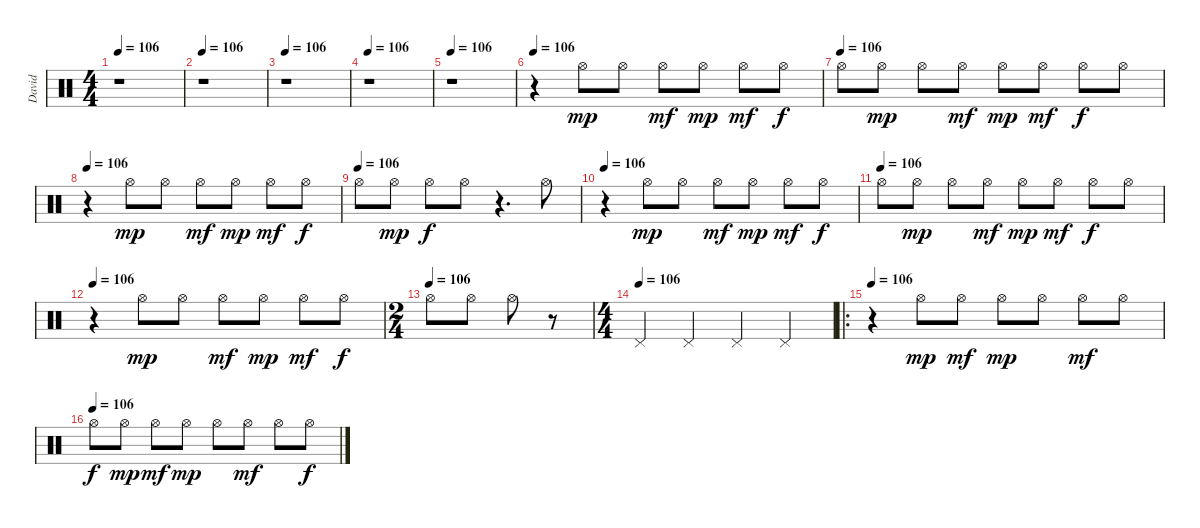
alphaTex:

\track ("David" "David") {instrument percussion}
\staff {score}
\articulation defaults
\ts (4 4)
\tempo 106
\clef neutral
\ks c
r.1{dy f} |
\tempo 106
r.1 |
\tempo 106
r.1 |
\tempo 106
r.1 |
\tempo 106
r.1 |
\tempo 106
r.4 "Hi-Hat (open)".8{dy mp} "Hi-Hat (open)".8 "Hi-Hat (open)".8{dy mf} "Hi-Hat (open)".8{dy mp} "Hi-Hat (open)".8{dy mf} "Hi-Hat (open)".8{dy f} |
\tempo (106)
"Hi-Hat (open)".8 "Hi-Hat (open)".8{dy mp} "Hi-Hat (open)".8 "Hi-Hat (open)".8{dy mf} "Hi-Hat (open)".8{dy mp} "Hi-Hat (open)".8{dy mf} "Hi-Hat (open)".8{dy f} "Hi-Hat (open)".8 |
\tempo 106
r.4 "Hi-Hat (open)".8{dy mp} "Hi-Hat (open)".8 "Hi-Hat (open)".8{dy mf} "Hi-Hat (open)".8{dy mp} "Hi-Hat (open)".8{dy mf} "Hi-Hat (open)".8{dy f} |
\tempo (106)
"Hi-Hat (open)".8 "Hi-Hat (open)".8{dy mp} "Hi-Hat (open)".8{dy f} "Hi-Hat (open)".8 r.4{d} "Hi-Hat (open)".8 |
\tempo 106
r.4 "Hi-Hat (open)".8{dy mp} "Hi-Hat (open)".8 "Hi-Hat (open)".8{dy mf} "Hi-Hat (open)".8{dy mp} "Hi-Hat (open)".8{dy mf} "Hi-Hat (open)".8{dy f} |
\tempo (106)
"Hi-Hat (open)".8 "Hi-Hat (open)".8{dy mp} "Hi-Hat (open)".8 "Hi-Hat (open)".8{dy mf} "Hi-Hat (open)".8{dy mp} "Hi-Hat (open)".8{dy mf} "Hi-Hat (open)".8{dy f} "Hi-Hat (open)".8 |
\tempo 106
r.4 "Hi-Hat (open)".8{dy mp} "Hi-Hat (open)".8 "Hi-Hat (open)".8{dy mf} "Hi-Hat (open)".8{dy mp} "Hi-Hat (open)".8{dy mf} "Hi-Hat (open)".8{dy f} |
\ts (2 4)
\tempo (106)
"Hi-Hat (open)".8 "Hi-Hat (open)".8 "Hi-Hat (open)".8 r.8 |
\ts (4 4)
\tempo (106)
"Pedal Hi-Hat (hit)".4 "Pedal Hi-Hat (hit)".4 "Pedal Hi-Hat (hit)".4 "Pedal Hi-Hat (hit)".4 |
\ro
\tempo 106
r.4 "Hi-Hat (open)".8{dy mp} "Hi-Hat (open)".8{dy mf} "Hi-Hat (open)".8{dy mp} "Hi-Hat (open)".8 "Hi-Hat (open)".8{dy mf} "Hi-Hat (open)".8 |
\tempo (106)
"Hi-Hat (open)".8{dy f} "Hi-Hat (open)".8{dy mp} "Hi-Hat (open)".8{dy mf} "Hi-Hat (open)".8{dy mp} "Hi-Hat (open)".8 "Hi-Hat (open)".8{dy mf} "Hi-Hat (open)".8 "Hi-Hat (open)".8{dy f}
